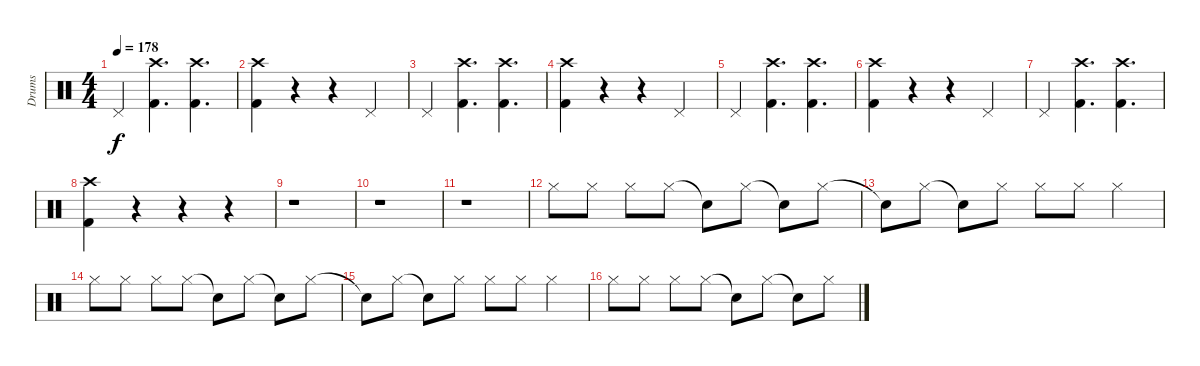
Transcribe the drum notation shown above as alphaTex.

\track ("Drums" "Drums") {mute instrument percussion}
\staff {score}
\articulation defaults
\ts (4 4)
\tempo 178
\clef neutral
\ks c "Pedal Hi-Hat (hit)".4{dy f}
("Crash high (hit)" "Kick (hit) 2").4{d} ("Crash high (hit)" "Kick (hit) 2").4{d} |
("Crash high (hit)" "Kick (hit) 2").4 r.4 r.4 "Pedal Hi-Hat (hit)".4 |
"Pedal Hi-Hat (hit)".4 ("Crash high (hit)" "Kick (hit) 2").4{d} ("Crash high (hit)" "Kick (hit) 2").4{d} |
("Crash high (hit)" "Kick (hit) 2").4 r.4 r.4 "Pedal Hi-Hat (hit)".4 |
"Pedal Hi-Hat (hit)".4 ("Crash high (hit)" "Kick (hit) 2").4{d} ("Crash high (hit)" "Kick (hit) 2").4{d} |
("Crash high (hit)" "Kick (hit) 2").4 r.4 r.4 "Pedal Hi-Hat (hit)".4 |
"Pedal Hi-Hat (hit)".4 ("Crash high (hit)" "Kick (hit) 2").4{d} ("Crash high (hit)" "Kick (hit) 2").4{d} |
("Crash high (hit)" "Kick (hit) 2").4 r.4 r.4 r.4 |
r.1 |
r.1 |
r.1 |
"Hi-Hat (closed)".8 "Hi-Hat (closed)".8 "Hi-Hat (closed)".8 "Hi-Hat (closed)".8 "Snare (hit)"{t}.8 "Hi-Hat (closed)".8 "Snare (hit)"{t}.8 "Hi-Hat (closed)".8 |
"Snare (hit)"{t}.8 "Hi-Hat (closed)".8 "Snare (hit)"{t}.8 "Hi-Hat (closed)".8 "Hi-Hat (closed)".8 "Hi-Hat (closed)".8 "Hi-Hat (closed)".4 |
"Hi-Hat (closed)".8 "Hi-Hat (closed)".8 "Hi-Hat (closed)".8 "Hi-Hat (closed)".8 "Snare (hit)"{t}.8 "Hi-Hat (closed)".8 "Snare (hit)"{t}.8 "Hi-Hat (closed)".8 |
"Snare (hit)"{t}.8 "Hi-Hat (closed)".8 "Snare (hit)"{t}.8 "Hi-Hat (closed)".8 "Hi-Hat (closed)".8 "Hi-Hat (closed)".8 "Hi-Hat (closed)".4 |
"Hi-Hat (closed)".8 "Hi-Hat (closed)".8 "Hi-Hat (closed)".8 "Hi-Hat (closed)".8 "Snare (hit)"{t}.8 "Hi-Hat (closed)".8 "Snare (hit)"{t}.8 "Hi-Hat (closed)".8
